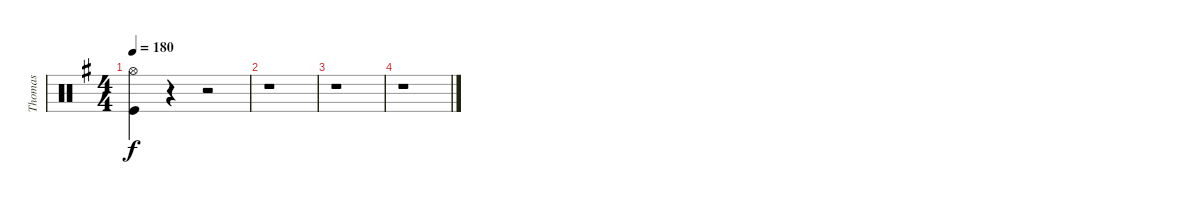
\track ("Thomas" "Thomas") {instrument percussion}
\staff {score}
\articulation defaults
\ts (4 4)
\tempo 180
\clef neutral
\ks g
("Hi-Hat (open)" "Kick (hit)").4{dy f} r.4 r.2 |
r.1 |
r.1 |
r.1
